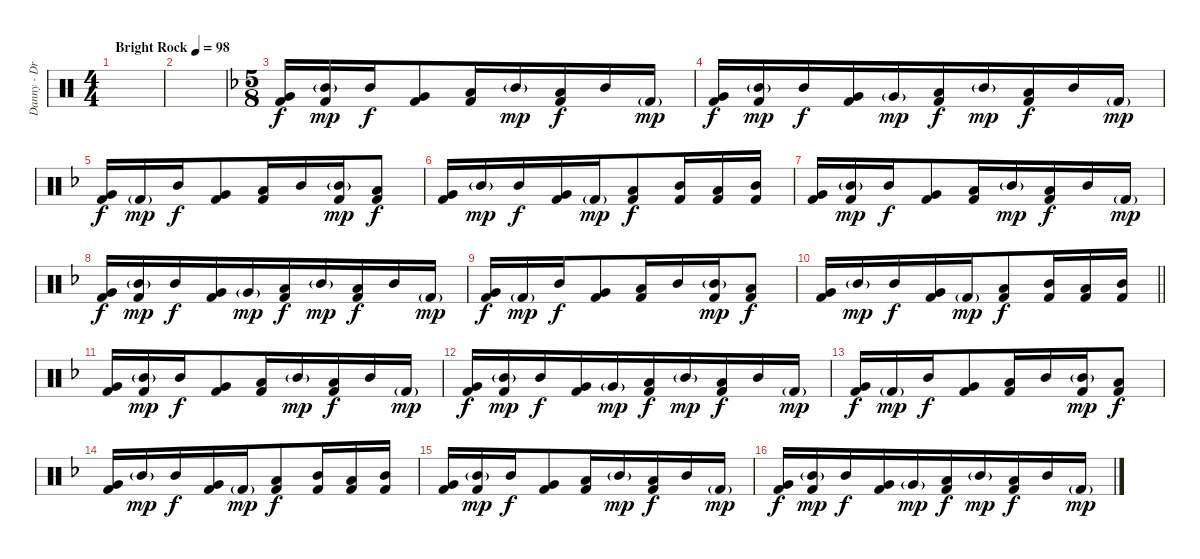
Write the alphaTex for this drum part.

\track ("Danny - Drums" "Danny - Dr") {instrument percussion}
\staff {score}
\articulation defaults
\ts (4 4)
\tempo (98 "Bright Rock")
\clef neutral
\ks c
|
|
\ts (5 8)
\ks dminor
("Very Low Tom (hit)" "Kick (hit) 2").16 ("Mid Tom (hit)"{g} "Kick (hit) 2").16{dy mp beam merge} "Mid Tom (hit)".16{dy f} ("Very Low Tom (hit)" "Kick (hit) 2").8 ("Low Tom (hit)" "Kick (hit) 2").16{beam merge} "Mid Tom (hit)"{g}.16{dy mp beam merge} ("Low Tom (hit)" "Kick (hit) 2").16{dy f} "Mid Tom (hit)".16 "Kick (hit) 2"{g}.16{dy mp} |
("Very Low Tom (hit)" "Kick (hit) 2").16{dy f} ("Mid Tom (hit)"{g} "Kick (hit) 2").16{dy mp beam merge} "Mid Tom (hit)".16{dy f} ("Very Low Tom (hit)" "Kick (hit) 2").16 "Very Low Tom (hit)"{g}.16{dy mp} ("Low Tom (hit)" "Kick (hit) 2").16{dy f beam merge} "Mid Tom (hit)"{g}.16{dy mp beam merge} ("Low Tom (hit)" "Kick (hit) 2").16{dy f} "Mid Tom (hit)".16 "Kick (hit) 2"{g}.16{dy mp} |
("Very Low Tom (hit)" "Kick (hit) 2").16{dy f} "Kick (hit) 2"{g}.16{dy mp beam merge} "Mid Tom (hit)".16{dy f} ("Very Low Tom (hit)" "Kick (hit) 2").8 ("Low Tom (hit)" "Kick (hit) 2").16{beam merge} "Mid Tom (hit)".16 ("Mid Tom (hit)"{g} "Kick (hit) 2").16{dy mp beam merge} ("Low Tom (hit)" "Kick (hit) 2").8{dy f} |
("Very Low Tom (hit)" "Kick (hit) 2").16 "Mid Tom (hit)"{g}.16{dy mp beam merge} "Mid Tom (hit)".16{dy f} ("Very Low Tom (hit)" "Kick (hit) 2").16 "Kick (hit) 2"{g}.16{dy mp} ("Low Tom (hit)" "Kick (hit) 2").8{dy f beam merge} ("Mid Tom (hit)" "Kick (hit) 2").16{beam merge} ("Low Tom (hit)" "Kick (hit) 2").16 ("Mid Tom (hit)" "Kick (hit) 2").16 |
("Very Low Tom (hit)" "Kick (hit) 2").16 ("Mid Tom (hit)"{g} "Kick (hit) 2").16{dy mp beam merge} "Mid Tom (hit)".16{dy f} ("Very Low Tom (hit)" "Kick (hit) 2").8 ("Low Tom (hit)" "Kick (hit) 2").16{beam merge} "Mid Tom (hit)"{g}.16{dy mp beam merge} ("Low Tom (hit)" "Kick (hit) 2").16{dy f} "Mid Tom (hit)".16 "Kick (hit) 2"{g}.16{dy mp} |
("Very Low Tom (hit)" "Kick (hit) 2").16{dy f} ("Mid Tom (hit)"{g} "Kick (hit) 2").16{dy mp beam merge} "Mid Tom (hit)".16{dy f} ("Very Low Tom (hit)" "Kick (hit) 2").16 "Very Low Tom (hit)"{g}.16{dy mp} ("Low Tom (hit)" "Kick (hit) 2").16{dy f beam merge} "Mid Tom (hit)"{g}.16{dy mp beam merge} ("Low Tom (hit)" "Kick (hit) 2").16{dy f} "Mid Tom (hit)".16 "Kick (hit) 2"{g}.16{dy mp} |
("Very Low Tom (hit)" "Kick (hit) 2").16{dy f} "Kick (hit) 2"{g}.16{dy mp beam merge} "Mid Tom (hit)".16{dy f} ("Very Low Tom (hit)" "Kick (hit) 2").8 ("Low Tom (hit)" "Kick (hit) 2").16{beam merge} "Mid Tom (hit)".16 ("Mid Tom (hit)"{g} "Kick (hit) 2").16{dy mp beam merge} ("Low Tom (hit)" "Kick (hit) 2").8{dy f} |
\barLineRight lightlight
("Very Low Tom (hit)" "Kick (hit) 2").16 "Mid Tom (hit)"{g}.16{dy mp beam merge} "Mid Tom (hit)".16{dy f} ("Very Low Tom (hit)" "Kick (hit) 2").16 "Kick (hit) 2"{g}.16{dy mp} ("Low Tom (hit)" "Kick (hit) 2").8{dy f beam merge} ("Mid Tom (hit)" "Kick (hit) 2").16{beam merge} ("Low Tom (hit)" "Kick (hit) 2").16 ("Mid Tom (hit)" "Kick (hit) 2").16 |
("Very Low Tom (hit)" "Kick (hit) 2").16 ("Mid Tom (hit)"{g} "Kick (hit) 2").16{dy mp beam merge} "Mid Tom (hit)".16{dy f} ("Very Low Tom (hit)" "Kick (hit) 2").8 ("Low Tom (hit)" "Kick (hit) 2").16{beam merge} "Mid Tom (hit)"{g}.16{dy mp beam merge} ("Low Tom (hit)" "Kick (hit) 2").16{dy f} "Mid Tom (hit)".16 "Kick (hit) 2"{g}.16{dy mp} |
("Very Low Tom (hit)" "Kick (hit) 2").16{dy f} ("Mid Tom (hit)"{g} "Kick (hit) 2").16{dy mp beam merge} "Mid Tom (hit)".16{dy f} ("Very Low Tom (hit)" "Kick (hit) 2").16 "Very Low Tom (hit)"{g}.16{dy mp} ("Low Tom (hit)" "Kick (hit) 2").16{dy f beam merge} "Mid Tom (hit)"{g}.16{dy mp beam merge} ("Low Tom (hit)" "Kick (hit) 2").16{dy f} "Mid Tom (hit)".16 "Kick (hit) 2"{g}.16{dy mp} |
("Very Low Tom (hit)" "Kick (hit) 2").16{dy f} "Kick (hit) 2"{g}.16{dy mp beam merge} "Mid Tom (hit)".16{dy f} ("Very Low Tom (hit)" "Kick (hit) 2").8 ("Low Tom (hit)" "Kick (hit) 2").16{beam merge} "Mid Tom (hit)".16 ("Mid Tom (hit)"{g} "Kick (hit) 2").16{dy mp beam merge} ("Low Tom (hit)" "Kick (hit) 2").8{dy f} |
("Very Low Tom (hit)" "Kick (hit) 2").16 "Mid Tom (hit)"{g}.16{dy mp beam merge} "Mid Tom (hit)".16{dy f} ("Very Low Tom (hit)" "Kick (hit) 2").16 "Kick (hit) 2"{g}.16{dy mp} ("Low Tom (hit)" "Kick (hit) 2").8{dy f beam merge} ("Mid Tom (hit)" "Kick (hit) 2").16{beam merge} ("Low Tom (hit)" "Kick (hit) 2").16 ("Mid Tom (hit)" "Kick (hit) 2").16 |
("Very Low Tom (hit)" "Kick (hit) 2").16 ("Mid Tom (hit)"{g} "Kick (hit) 2").16{dy mp beam merge} "Mid Tom (hit)".16{dy f} ("Very Low Tom (hit)" "Kick (hit) 2").8 ("Low Tom (hit)" "Kick (hit) 2").16{beam merge} "Mid Tom (hit)"{g}.16{dy mp beam merge} ("Low Tom (hit)" "Kick (hit) 2").16{dy f} "Mid Tom (hit)".16 "Kick (hit) 2"{g}.16{dy mp} |
("Very Low Tom (hit)" "Kick (hit) 2").16{dy f} ("Mid Tom (hit)"{g} "Kick (hit) 2").16{dy mp beam merge} "Mid Tom (hit)".16{dy f} ("Very Low Tom (hit)" "Kick (hit) 2").16 "Very Low Tom (hit)"{g}.16{dy mp} ("Low Tom (hit)" "Kick (hit) 2").16{dy f beam merge} "Mid Tom (hit)"{g}.16{dy mp beam merge} ("Low Tom (hit)" "Kick (hit) 2").16{dy f} "Mid Tom (hit)".16 "Kick (hit) 2"{g}.16{dy mp}
